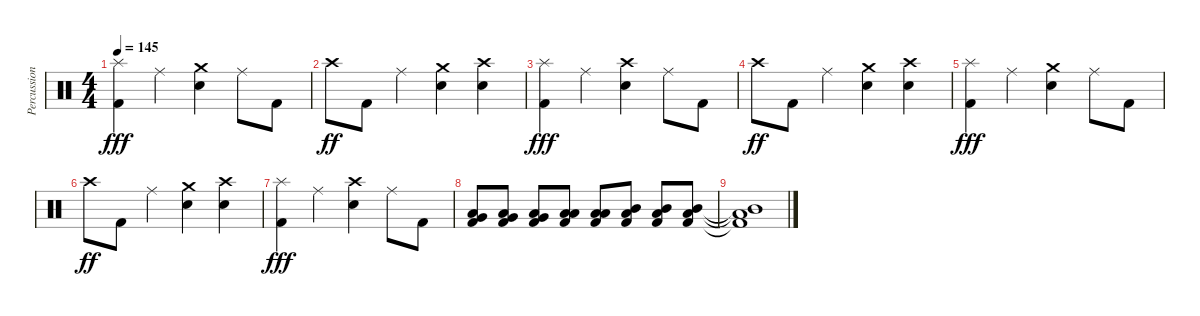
\track ("Percussion" "Percussion") {instrument percussion}
\staff {score}
\articulation defaults
\ts (4 4)
\tempo 145
\clef neutral
\ks c
("Splash (hit)" "Kick (hit) 2").4{dy fff} "Ride (middle)".4 ("Crash medium (hit)" "Electric Snare (hit)").4 "Ride (middle)".8 "Kick (hit) 2".8 |
"Crash high (hit)".8{dy ff} "Kick (hit) 2".8 "Ride (middle)".4 ("Crash medium (hit)" "Electric Snare (hit)").4 ("Crash high (hit)" "Electric Snare (hit)").4 |
("Splash (hit)" "Kick (hit) 2").4{dy fff} "Ride (middle)".4 ("Crash high (hit)" "Electric Snare (hit)").4 "Ride (middle)".8 "Kick (hit) 2".8 |
"Crash high (hit)".8{dy ff} "Kick (hit) 2".8 "Ride (middle)".4 ("Crash medium (hit)" "Electric Snare (hit)").4 ("Crash high (hit)" "Electric Snare (hit)").4 |
("Splash (hit)" "Kick (hit) 2").4{dy fff} "Ride (middle)".4 ("Crash medium (hit)" "Electric Snare (hit)").4 "Ride (middle)".8 "Kick (hit) 2".8 |
"Crash high (hit)".8{dy ff} "Kick (hit) 2".8 "Ride (middle)".4 ("Crash medium (hit)" "Electric Snare (hit)").4 ("Crash high (hit)" "Electric Snare (hit)").4 |
("Splash (hit)" "Kick (hit) 2").4{dy fff} "Ride (middle)".4 ("Crash high (hit)" "Electric Snare (hit)").4 "Ride (middle)".8 "Kick (hit) 2".8 |
("Low Tom (hit)" "Very Low Tom (hit)" "Kick (hit) 2").8 ("Low Tom (hit)" "Very Low Tom (hit)" "Kick (hit) 2").8 ("Low Tom (hit)" "Very Low Tom (hit)" "Kick (hit) 2").8 ("Low Tom (hit)" "Low Tom (hit)" "Kick (hit) 2").8 ("Low Tom (hit)" "Low Tom (hit)" "Kick (hit) 2").8 ("Mid Tom (hit)" "Low Tom (hit)" "Kick (hit) 2").8 ("Mid Tom (hit)" "Low Tom (hit)" "Kick (hit) 2").8 ("Mid Tom (hit)" "Low Tom (hit)" "Kick (hit) 2").8 |
("Mid Tom (hit)"{t} "Low Tom (hit)"{t} "Kick (hit) 2"{t}).1
